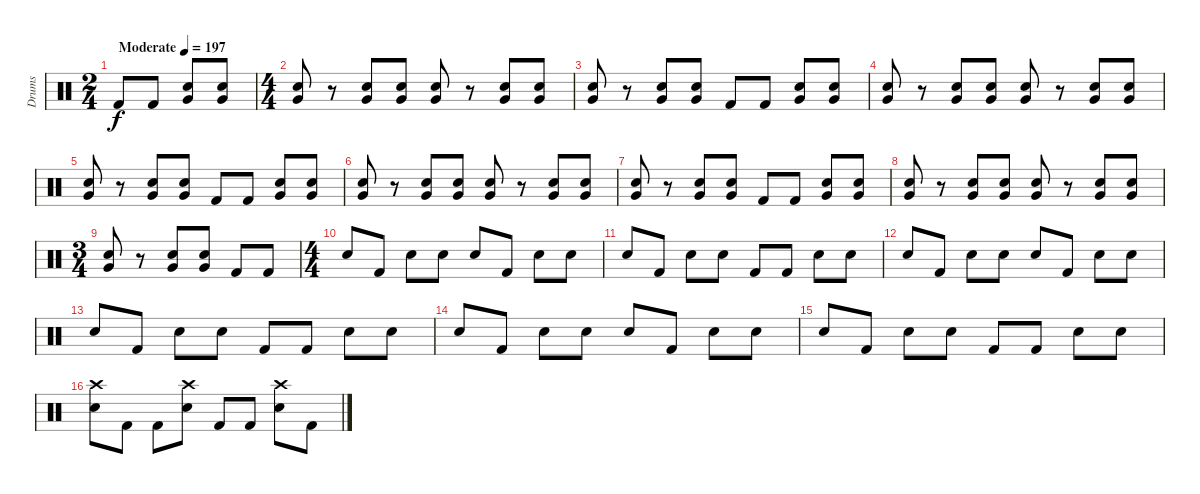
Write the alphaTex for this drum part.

\track ("Drums" "Drums") {instrument percussion}
\staff {score}
\articulation defaults
\ts (2 4)
\tempo (197 "Moderate")
\clef neutral
\ks c "Kick (hit) 2".8{dy f} "Kick (hit) 2".8
("Very Low Tom (hit)" "Electric Snare (hit)").8 ("Very Low Tom (hit)" "Electric Snare (hit)").8 |
\ts (4 4)
("Very Low Tom (hit)" "Electric Snare (hit)").8 r.8 ("Very Low Tom (hit)" "Electric Snare (hit)").8 ("Very Low Tom (hit)" "Electric Snare (hit)").8 ("Very Low Tom (hit)" "Electric Snare (hit)").8 r.8 ("Very Low Tom (hit)" "Electric Snare (hit)").8 ("Very Low Tom (hit)" "Electric Snare (hit)").8 |
("Very Low Tom (hit)" "Electric Snare (hit)").8 r.8 ("Very Low Tom (hit)" "Electric Snare (hit)").8 ("Very Low Tom (hit)" "Electric Snare (hit)").8 "Kick (hit) 2".8 "Kick (hit) 2".8 ("Very Low Tom (hit)" "Electric Snare (hit)").8 ("Very Low Tom (hit)" "Electric Snare (hit)").8 |
("Very Low Tom (hit)" "Electric Snare (hit)").8 r.8 ("Very Low Tom (hit)" "Electric Snare (hit)").8 ("Very Low Tom (hit)" "Electric Snare (hit)").8 ("Very Low Tom (hit)" "Electric Snare (hit)").8 r.8 ("Very Low Tom (hit)" "Electric Snare (hit)").8 ("Very Low Tom (hit)" "Electric Snare (hit)").8 |
("Very Low Tom (hit)" "Electric Snare (hit)").8 r.8 ("Very Low Tom (hit)" "Electric Snare (hit)").8 ("Very Low Tom (hit)" "Electric Snare (hit)").8 "Kick (hit) 2".8 "Kick (hit) 2".8 ("Very Low Tom (hit)" "Electric Snare (hit)").8 ("Very Low Tom (hit)" "Electric Snare (hit)").8 |
("Very Low Tom (hit)" "Electric Snare (hit)").8 r.8 ("Very Low Tom (hit)" "Electric Snare (hit)").8 ("Very Low Tom (hit)" "Electric Snare (hit)").8 ("Very Low Tom (hit)" "Electric Snare (hit)").8 r.8 ("Very Low Tom (hit)" "Electric Snare (hit)").8 ("Very Low Tom (hit)" "Electric Snare (hit)").8 |
("Very Low Tom (hit)" "Electric Snare (hit)").8 r.8 ("Very Low Tom (hit)" "Electric Snare (hit)").8 ("Very Low Tom (hit)" "Electric Snare (hit)").8 "Kick (hit) 2".8 "Kick (hit) 2".8 ("Very Low Tom (hit)" "Electric Snare (hit)").8 ("Very Low Tom (hit)" "Electric Snare (hit)").8 |
("Very Low Tom (hit)" "Electric Snare (hit)").8 r.8 ("Very Low Tom (hit)" "Electric Snare (hit)").8 ("Very Low Tom (hit)" "Electric Snare (hit)").8 ("Very Low Tom (hit)" "Electric Snare (hit)").8 r.8 ("Very Low Tom (hit)" "Electric Snare (hit)").8 ("Very Low Tom (hit)" "Electric Snare (hit)").8 |
\ts (3 4)
("Very Low Tom (hit)" "Electric Snare (hit)").8 r.8 ("Very Low Tom (hit)" "Electric Snare (hit)").8 ("Very Low Tom (hit)" "Electric Snare (hit)").8 "Kick (hit) 2".8 "Kick (hit) 2".8 |
\ts (4 4)
"Electric Snare (hit)".8 "Kick (hit) 2".8 "Electric Snare (hit)".8 "Electric Snare (hit)".8 "Electric Snare (hit)".8 "Kick (hit) 2".8 "Electric Snare (hit)".8 "Electric Snare (hit)".8 |
"Electric Snare (hit)".8 "Kick (hit) 2".8 "Electric Snare (hit)".8 "Electric Snare (hit)".8 "Kick (hit) 2".8 "Kick (hit) 2".8 "Electric Snare (hit)".8 "Electric Snare (hit)".8 |
"Electric Snare (hit)".8 "Kick (hit) 2".8 "Electric Snare (hit)".8 "Electric Snare (hit)".8 "Electric Snare (hit)".8 "Kick (hit) 2".8 "Electric Snare (hit)".8 "Electric Snare (hit)".8 |
"Electric Snare (hit)".8 "Kick (hit) 2".8 "Electric Snare (hit)".8 "Electric Snare (hit)".8 "Kick (hit) 2".8 "Kick (hit) 2".8 "Electric Snare (hit)".8 "Electric Snare (hit)".8 |
"Electric Snare (hit)".8 "Kick (hit) 2".8 "Electric Snare (hit)".8 "Electric Snare (hit)".8 "Electric Snare (hit)".8 "Kick (hit) 2".8 "Electric Snare (hit)".8 "Electric Snare (hit)".8 |
"Electric Snare (hit)".8 "Kick (hit) 2".8 "Electric Snare (hit)".8 "Electric Snare (hit)".8 "Kick (hit) 2".8 "Kick (hit) 2".8 "Electric Snare (hit)".8 "Electric Snare (hit)".8 |
("Crash high (hit)" "Electric Snare (hit)").8 "Kick (hit) 2".8 "Kick (hit) 2".8 ("Crash high (hit)" "Electric Snare (hit)").8 "Kick (hit) 2".8 "Kick (hit) 2".8 ("Crash high (hit)" "Electric Snare (hit)").8 "Kick (hit) 2".8
